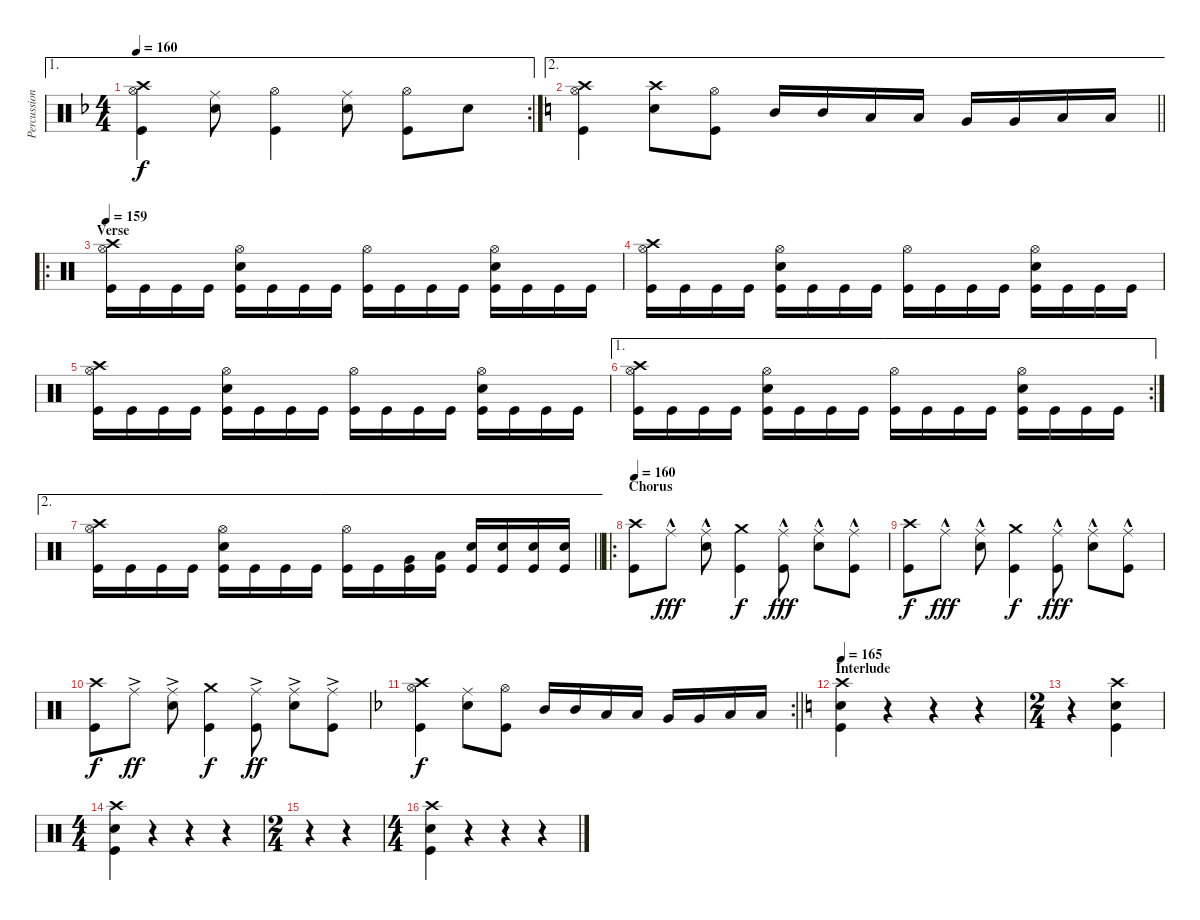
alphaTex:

\track ("Percussion" "Percussion") {instrument percussion}
\staff {score}
\articulation defaults
\ae 1
\rc 2
\ts (4 4)
\tempo 160
\clef neutral
\ks f
("Crash high (hit)" "Hi-Hat (open)" "Kick (hit)").4{dy f} ("Ride (middle)" "Electric Snare (hit)").8 ("Hi-Hat (open)" "Kick (hit)").4 ("Ride (middle)" "Electric Snare (hit)").8 ("Hi-Hat (open)" "Kick (hit)").8 "Electric Snare (hit)".8 |
\ae 2
\barLineRight lightlight
\ks c
("Crash high (hit)" "Hi-Hat (open)" "Kick (hit)").4 ("Crash high (hit)" "Electric Snare (hit)").8 ("Hi-Hat (open)" "Kick (hit)").8 "Mid Tom (hit)".16 "Mid Tom (hit)".16 "Low Tom (hit)".16 "Low Tom (hit)".16 "Very Low Tom (hit)".16 "Very Low Tom (hit)".16 "Low Floor Tom (hit)".16 "Low Floor Tom (hit)".16 |
\ro
\section ("" "Verse")
\tempo 159
("Crash high (hit)" "Hi-Hat (open)" "Kick (hit)").16 "Kick (hit)".16 "Kick (hit)".16 "Kick (hit)".16 ("Electric Snare (hit)" "Hi-Hat (open)" "Kick (hit)").16 "Kick (hit)".16 "Kick (hit)".16 "Kick (hit)".16 ("Hi-Hat (open)" "Kick (hit)").16 "Kick (hit)".16 "Kick (hit)".16 "Kick (hit)".16 ("Electric Snare (hit)" "Hi-Hat (open)" "Kick (hit)").16 "Kick (hit)".16 "Kick (hit)".16 "Kick (hit)".16 |
("Crash high (hit)" "Hi-Hat (open)" "Kick (hit)").16 "Kick (hit)".16 "Kick (hit)".16 "Kick (hit)".16 ("Electric Snare (hit)" "Hi-Hat (open)" "Kick (hit)").16 "Kick (hit)".16 "Kick (hit)".16 "Kick (hit)".16 ("Hi-Hat (open)" "Kick (hit)").16 "Kick (hit)".16 "Kick (hit)".16 "Kick (hit)".16 ("Electric Snare (hit)" "Hi-Hat (open)" "Kick (hit)").16 "Kick (hit)".16 "Kick (hit)".16 "Kick (hit)".16 |
("Crash high (hit)" "Hi-Hat (open)" "Kick (hit)").16 "Kick (hit)".16 "Kick (hit)".16 "Kick (hit)".16 ("Electric Snare (hit)" "Hi-Hat (open)" "Kick (hit)").16 "Kick (hit)".16 "Kick (hit)".16 "Kick (hit)".16 ("Hi-Hat (open)" "Kick (hit)").16 "Kick (hit)".16 "Kick (hit)".16 "Kick (hit)".16 ("Electric Snare (hit)" "Hi-Hat (open)" "Kick (hit)").16 "Kick (hit)".16 "Kick (hit)".16 "Kick (hit)".16 |
\ae 1
\rc 2
("Crash high (hit)" "Hi-Hat (open)" "Kick (hit)").16 "Kick (hit)".16 "Kick (hit)".16 "Kick (hit)".16 ("Electric Snare (hit)" "Hi-Hat (open)" "Kick (hit)").16 "Kick (hit)".16 "Kick (hit)".16 "Kick (hit)".16 ("Hi-Hat (open)" "Kick (hit)").16 "Kick (hit)".16 "Kick (hit)".16 "Kick (hit)".16 ("Electric Snare (hit)" "Hi-Hat (open)" "Kick (hit)").16 "Kick (hit)".16 "Kick (hit)".16 "Kick (hit)".16 |
\ae 2
\barLineRight lightlight
("Crash high (hit)" "Hi-Hat (open)" "Kick (hit)").16 "Kick (hit)".16 "Kick (hit)".16 "Kick (hit)".16 ("Electric Snare (hit)" "Hi-Hat (open)" "Kick (hit)").16 "Kick (hit)".16 "Kick (hit)".16 "Kick (hit)".16 ("Hi-Hat (open)" "Kick (hit)").16 "Kick (hit)".16 ("Very Low Tom (hit)" "Kick (hit)").16 ("Low Floor Tom (hit)" "Kick (hit)").16 ("Electric Snare (hit)" "Kick (hit)").16 ("Electric Snare (hit)" "Kick (hit)").16 ("Electric Snare (hit)" "Kick (hit)").16 ("Electric Snare (hit)" "Kick (hit)").16 |
\ro
\section ("" "Chorus")
\tempo 160
("Crash high (hit)" "Kick (hit)").8 "Ride (middle)"{hac}.8{dy fff} ("Ride (middle)"{hac} "Electric Snare (hit)").8 ("Crash medium (hit)" "Kick (hit)").4{dy f} ("Ride (middle)"{hac} "Kick (hit)").8{dy fff} ("Ride (middle)"{hac} "Electric Snare (hit)").8 ("Ride (middle)"{hac} "Kick (hit)").8 |
("Crash high (hit)" "Kick (hit)").8{dy f} "Ride (middle)"{hac}.8{dy fff} ("Ride (middle)"{hac} "Electric Snare (hit)").8 ("Crash medium (hit)" "Kick (hit)").4{dy f} ("Ride (middle)"{hac} "Kick (hit)").8{dy fff} ("Ride (middle)"{hac} "Electric Snare (hit)").8 ("Ride (middle)"{hac} "Kick (hit)").8 |
("Crash high (hit)" "Kick (hit)").8{dy f} "Ride (middle)"{ac}.8{dy ff} ("Ride (middle)"{ac} "Electric Snare (hit)").8 ("Crash medium (hit)" "Kick (hit)").4{dy f} ("Ride (middle)"{ac} "Kick (hit)").8{dy ff} ("Ride (middle)"{ac} "Electric Snare (hit)").8 ("Ride (middle)"{ac} "Kick (hit)").8 |
\rc 2
\barLineRight lightlight
\ks f
("Crash high (hit)" "Hi-Hat (open)" "Kick (hit)").4{dy f} ("Ride (middle)" "Electric Snare (hit)").8 ("Hi-Hat (open)" "Kick (hit)").8 "Mid Tom (hit)".16 "Mid Tom (hit)".16 "Low Tom (hit)".16 "Low Tom (hit)".16 "Very Low Tom (hit)".16 "Very Low Tom (hit)".16 "Low Floor Tom (hit)".16 "Low Floor Tom (hit)".16 |
\section ("" "Interlude")
\tempo 165
\ks c
("Crash high (hit)" "Electric Snare (hit)" "Kick (hit)").4 r.4 r.4 r.4 |
\ts (2 4)
r.4 ("Crash high (hit)" "Electric Snare (hit)" "Kick (hit)").4 |
\ts (4 4)
("Crash high (hit)" "Electric Snare (hit)" "Kick (hit)").4 r.4 r.4 r.4 |
\ts (2 4)
r.4 r.4 |
\ts (4 4)
("Crash high (hit)" "Electric Snare (hit)" "Kick (hit)").4 r.4 r.4 r.4
